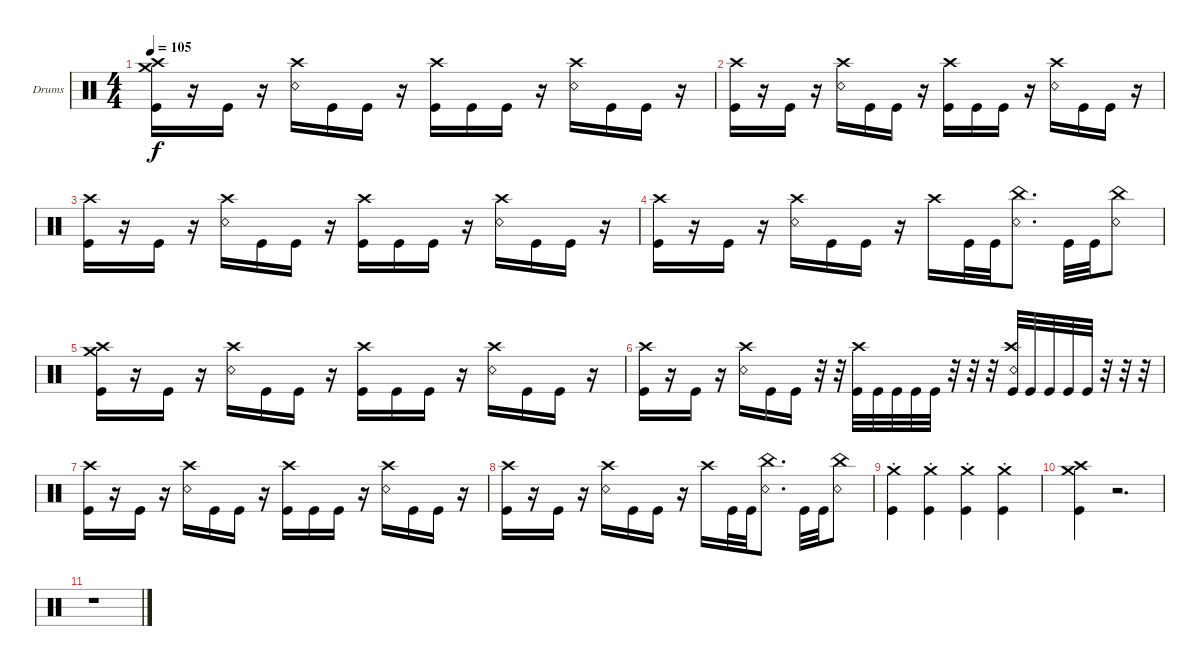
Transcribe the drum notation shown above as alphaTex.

\bracketExtendMode groupsimilarinstruments
\firstSystemTrackNameOrientation horizontal
\otherSystemsTrackNameOrientation horizontal
\track ("[STEWART]" "Drums") {instrument percussion}
\staff {score}
\articulation defaults
\ts (4 4)
\tempo 105
\clef neutral
\ks c
("Kick (hit)" "Crash high (hit)" "Crash medium (hit)").16{dy f} r.16 "Kick (hit)".16 r.16 ("Crash high (hit)" "Snare (rim shot)").16 "Kick (hit)".16 "Kick (hit)".16 r.16 ("Kick (hit)" "Crash high (hit)").16 "Kick (hit)".16 "Kick (hit)".16 r.16 ("Crash high (hit)" "Snare (rim shot)").16 "Kick (hit)".16 "Kick (hit)".16 r.16 |
("Kick (hit)" "Crash high (hit)").16 r.16 "Kick (hit)".16 r.16 ("Crash high (hit)" "Snare (rim shot)").16 "Kick (hit)".16 "Kick (hit)".16 r.16 ("Kick (hit)" "Crash high (hit)").16 "Kick (hit)".16 "Kick (hit)".16 r.16 ("Crash high (hit)" "Snare (rim shot)").16 "Kick (hit)".16 "Kick (hit)".16 r.16 |
("Kick (hit)" "Crash high (hit)").16 r.16 "Kick (hit)".16 r.16 ("Crash high (hit)" "Snare (rim shot)").16 "Kick (hit)".16 "Kick (hit)".16 r.16 ("Kick (hit)" "Crash high (hit)").16 "Kick (hit)".16 "Kick (hit)".16 r.16 ("Crash high (hit)" "Snare (rim shot)").16 "Kick (hit)".16 "Kick (hit)".16 r.16 |
("Kick (hit)" "Crash high (hit)").16 r.16 "Kick (hit)".16 r.16 ("Crash high (hit)" "Snare (rim shot)").16 "Kick (hit)".16 "Kick (hit)".16 r.16 "Crash high (hit)".16 "Kick (hit)".32 "Kick (hit)".32 ("Snare (rim shot)" "China (hit)").8{d} "Kick (hit)".32 "Kick (hit)".32 ("Snare (rim shot)" "China (hit)").8 |
("Kick (hit)" "Crash high (hit)" "Crash medium (hit)").16 r.16 "Kick (hit)".16 r.16 ("Crash high (hit)" "Snare (rim shot)").16 "Kick (hit)".16 "Kick (hit)".16 r.16 ("Kick (hit)" "Crash high (hit)").16 "Kick (hit)".16 "Kick (hit)".16 r.16 ("Crash high (hit)" "Snare (rim shot)").16 "Kick (hit)".16 "Kick (hit)".16 r.16 |
("Kick (hit)" "Crash high (hit)").16 r.16 "Kick (hit)".16 r.16 ("Crash high (hit)" "Snare (rim shot)").16 "Kick (hit)".16 "Kick (hit)".16 r.32 r.32 ("Kick (hit)" "Crash high (hit)").32 "Kick (hit)".32 "Kick (hit)".32 "Kick (hit)".32 "Kick (hit)".32 r.32 r.32 r.32 ("Crash high (hit)" "Snare (rim shot)" "Kick (hit)").32 "Kick (hit)".32 "Kick (hit)".32 "Kick (hit)".32 "Kick (hit)".32 r.32 r.32 r.32 |
("Kick (hit)" "Crash high (hit)").16 r.16 "Kick (hit)".16 r.16 ("Crash high (hit)" "Snare (rim shot)").16 "Kick (hit)".16 "Kick (hit)".16 r.16 ("Kick (hit)" "Crash high (hit)").16 "Kick (hit)".16 "Kick (hit)".16 r.16 ("Crash high (hit)" "Snare (rim shot)").16 "Kick (hit)".16 "Kick (hit)".16 r.16 |
("Kick (hit)" "Crash high (hit)").16 r.16 "Kick (hit)".16 r.16 ("Crash high (hit)" "Snare (rim shot)").16 "Kick (hit)".16 "Kick (hit)".16 r.16 "Crash high (hit)".16 "Kick (hit)".32 "Kick (hit)".32 ("Snare (rim shot)" "China (hit)").8{d} "Kick (hit)".32 "Kick (hit)".32 ("Snare (rim shot)" "China (hit)").8 |
("Kick (hit)" "Crash medium (hit)"{st}).4 ("Kick (hit)" "Crash medium (hit)"{st}).4 ("Kick (hit)" "Crash medium (hit)"{st}).4 ("Kick (hit)" "Crash medium (hit)"{st}).4 |
("Kick (hit)" "Crash high (hit)" "Crash medium (hit)").4 r.2{d} |
r.1
